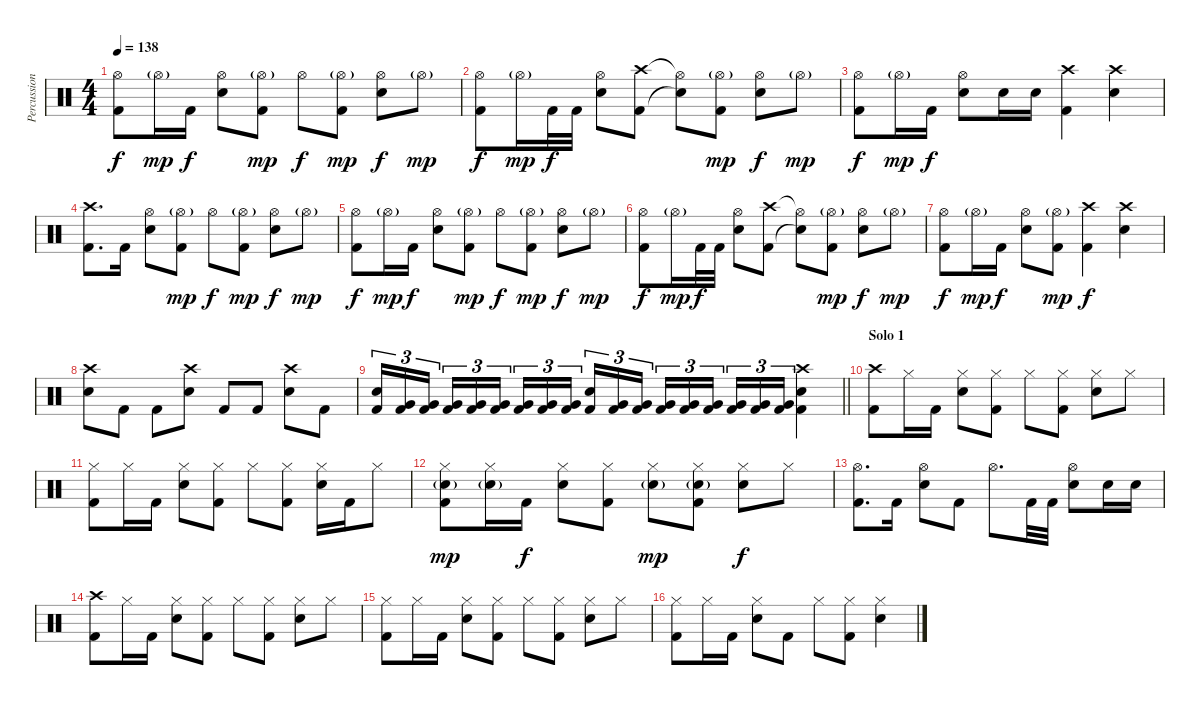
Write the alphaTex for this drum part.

\track ("Percussion" "Percussion") {instrument percussion}
\staff {score}
\articulation defaults
\ts (4 4)
\tempo 138
\clef neutral
\ks c
("Hi-Hat (open)" "Kick (hit) 2").8{dy f} "Hi-Hat (open)"{g}.16{dy mp} "Kick (hit) 2".16{dy f} ("Hi-Hat (open)" "Snare (hit) 2").8 ("Hi-Hat (open)"{g} "Kick (hit) 2").8{dy mp} "Hi-Hat (open)".8{dy f} ("Hi-Hat (open)"{g} "Kick (hit) 2").8{dy mp} ("Hi-Hat (open)" "Snare (hit) 2").8{dy f} "Hi-Hat (open)"{g}.8{dy mp} |
("Hi-Hat (open)" "Kick (hit) 2").8{dy f} "Hi-Hat (open)"{g}.16{dy mp} "Kick (hit) 2".32{dy f} "Kick (hit) 2".32 ("Hi-Hat (open)" "Snare (hit) 2").8 ("Crash high (hit)" "Kick (hit) 2").8 ("Hi-Hat (open)"{t} "Snare (hit)"{t}).8 ("Hi-Hat (open)"{g} "Kick (hit) 2").8{dy mp} ("Hi-Hat (open)" "Snare (hit) 2").8{dy f} "Hi-Hat (open)"{g}.8{dy mp} |
("Hi-Hat (open)" "Kick (hit) 2").8{dy f} "Hi-Hat (open)"{g}.16{dy mp} "Kick (hit) 2".16{dy f} ("Hi-Hat (open)" "Snare (hit) 2").8 "Snare (hit) 2".16 "Snare (hit) 2".16 ("Crash high (hit)" "Kick (hit) 2").4 ("Crash high (hit)" "Snare (hit) 2").4 |
("Crash high (hit)" "Kick (hit) 2").8{d} "Kick (hit) 2".16 ("Hi-Hat (open)" "Snare (hit) 2").8 ("Hi-Hat (open)"{g} "Kick (hit) 2").8{dy mp} "Hi-Hat (open)".8{dy f} ("Hi-Hat (open)"{g} "Kick (hit) 2").8{dy mp} ("Hi-Hat (open)" "Snare (hit) 2").8{dy f} "Hi-Hat (open)"{g}.8{dy mp} |
("Hi-Hat (open)" "Kick (hit) 2").8{dy f} "Hi-Hat (open)"{g}.16{dy mp} "Kick (hit) 2".16{dy f} ("Hi-Hat (open)" "Snare (hit) 2").8 ("Hi-Hat (open)"{g} "Kick (hit) 2").8{dy mp} "Hi-Hat (open)".8{dy f} ("Hi-Hat (open)"{g} "Kick (hit) 2").8{dy mp} ("Hi-Hat (open)" "Snare (hit) 2").8{dy f} "Hi-Hat (open)"{g}.8{dy mp} |
("Hi-Hat (open)" "Kick (hit) 2").8{dy f} "Hi-Hat (open)"{g}.16{dy mp} "Kick (hit) 2".32{dy f} "Kick (hit) 2".32 ("Hi-Hat (open)" "Snare (hit) 2").8 ("Crash high (hit)" "Kick (hit) 2").8 ("Hi-Hat (open)"{t} "Snare (hit)"{t}).8 ("Hi-Hat (open)"{g} "Kick (hit) 2").8{dy mp} ("Hi-Hat (open)" "Snare (hit) 2").8{dy f} "Hi-Hat (open)"{g}.8{dy mp} |
("Hi-Hat (open)" "Kick (hit) 2").8{dy f} "Hi-Hat (open)"{g}.16{dy mp} "Kick (hit) 2".16{dy f} ("Hi-Hat (open)" "Snare (hit) 2").8 ("Hi-Hat (open)"{g} "Kick (hit) 2").8{dy mp} ("Crash high (hit)" "Kick (hit) 2").4{dy f} ("Crash high (hit)" "Snare (hit) 2").4 |
("Crash high (hit)" "Snare (hit) 2").8 "Kick (hit) 2".8 "Kick (hit) 2".8 ("Crash high (hit)" "Snare (hit) 2").8 "Kick (hit) 2".8 "Kick (hit) 2".8 ("Crash high (hit)" "Snare (hit) 2").8 "Kick (hit) 2".8 |
\barLineRight lightlight
("Snare (hit) 2" "Kick (hit) 2").16{tu (3 2)} ("Very Low Tom (hit)" "Kick (hit) 2").16{tu (3 2)} ("Very Low Tom (hit)" "Kick (hit) 2").16{tu (3 2)} ("Very Low Tom (hit)" "Kick (hit) 2").16{tu (3 2)} ("Very Low Tom (hit)" "Kick (hit) 2").16{tu (3 2)} ("Very Low Tom (hit)" "Kick (hit) 2").16{tu (3 2)} ("Very Low Tom (hit)" "Kick (hit) 2").16{tu (3 2)} ("Very Low Tom (hit)" "Kick (hit) 2").16{tu (3 2)} ("Very Low Tom (hit)" "Kick (hit) 2").16{tu (3 2)} ("Snare (hit) 2" "Kick (hit) 2").16{tu (3 2)} ("Very Low Tom (hit)" "Kick (hit) 2").16{tu (3 2)} ("Very Low Tom (hit)" "Kick (hit) 2").16{tu (3 2)} ("Very Low Tom (hit)" "Kick (hit) 2").16{tu (3 2)} ("Very Low Tom (hit)" "Kick (hit) 2").16{tu (3 2)} ("Very Low Tom (hit)" "Kick (hit) 2").16{tu (3 2)} ("Very Low Tom (hit)" "Kick (hit) 2").16{tu (3 2)} ("Very Low Tom (hit)" "Kick (hit) 2").16{tu (3 2)} ("Very Low Tom (hit)" "Kick (hit) 2").16{tu (3 2)} ("Crash high (hit)" "Snare (hit) 2" "Kick (hit) 2").4 |
\section ("" "Solo 1")
("Crash high (hit)" "Kick (hit) 2").8 "Hi-Hat (closed)".16 "Kick (hit) 2".16 ("Hi-Hat (closed)" "Snare (hit) 2").8 ("Hi-Hat (closed)" "Kick (hit) 2").8 "Hi-Hat (closed)".8 ("Hi-Hat (closed)" "Kick (hit) 2").8 ("Hi-Hat (closed)" "Snare (hit) 2").8 "Hi-Hat (closed)".8 |
("Hi-Hat (closed)" "Kick (hit) 2").8 "Hi-Hat (closed)".16 "Kick (hit) 2".16 ("Hi-Hat (closed)" "Snare (hit) 2").8 ("Hi-Hat (closed)" "Kick (hit) 2").8 "Hi-Hat (closed)".8 ("Hi-Hat (closed)" "Kick (hit) 2").8 ("Hi-Hat (closed)" "Snare (hit) 2").16 "Kick (hit) 2".16 "Hi-Hat (closed)".8 |
("Hi-Hat (closed)" "Snare (hit) 2"{g} "Kick (hit) 2").8{dy mp} ("Hi-Hat (closed)" "Snare (hit) 2"{g}).16 "Kick (hit) 2".16{dy f} ("Hi-Hat (closed)" "Snare (hit) 2").8 ("Hi-Hat (closed)" "Kick (hit) 2").8 ("Hi-Hat (closed)" "Snare (hit) 2"{g}).8{dy mp} ("Hi-Hat (closed)" "Snare (hit) 2"{g} "Kick (hit) 2").8 ("Hi-Hat (closed)" "Snare (hit) 2").8{dy f} "Hi-Hat (closed)".8 |
("Hi-Hat (open)" "Kick (hit) 2").8{d} "Kick (hit) 2".16 ("Hi-Hat (open)" "Snare (hit) 2").8 "Kick (hit) 2".8 "Hi-Hat (open)".8{d} "Kick (hit) 2".32 "Kick (hit) 2".32 ("Hi-Hat (open)" "Snare (hit) 2").8 "Snare (hit) 2".16 "Snare (hit) 2".16 |
("Crash high (hit)" "Kick (hit) 2").8 "Hi-Hat (closed)".16 "Kick (hit) 2".16 ("Hi-Hat (closed)" "Snare (hit) 2").8 ("Hi-Hat (closed)" "Kick (hit) 2").8 "Hi-Hat (closed)".8 ("Hi-Hat (closed)" "Kick (hit) 2").8 ("Hi-Hat (closed)" "Snare (hit) 2").8 "Hi-Hat (closed)".8 |
("Hi-Hat (closed)" "Kick (hit) 2").8 "Hi-Hat (closed)".16 "Kick (hit) 2".16 ("Hi-Hat (closed)" "Snare (hit) 2").8 ("Hi-Hat (closed)" "Kick (hit) 2").8 "Hi-Hat (closed)".8 ("Hi-Hat (closed)" "Kick (hit) 2").8 ("Hi-Hat (closed)" "Snare (hit) 2").8 "Hi-Hat (closed)".8 |
("Hi-Hat (closed)" "Kick (hit) 2").8 "Hi-Hat (closed)".16 "Kick (hit) 2".16 ("Hi-Hat (closed)" "Snare (hit) 2").8 "Kick (hit) 2".8 "Hi-Hat (closed)".8 ("Hi-Hat (closed)" "Kick (hit) 2").8 ("Hi-Hat (closed)" "Snare (hit) 2").4
